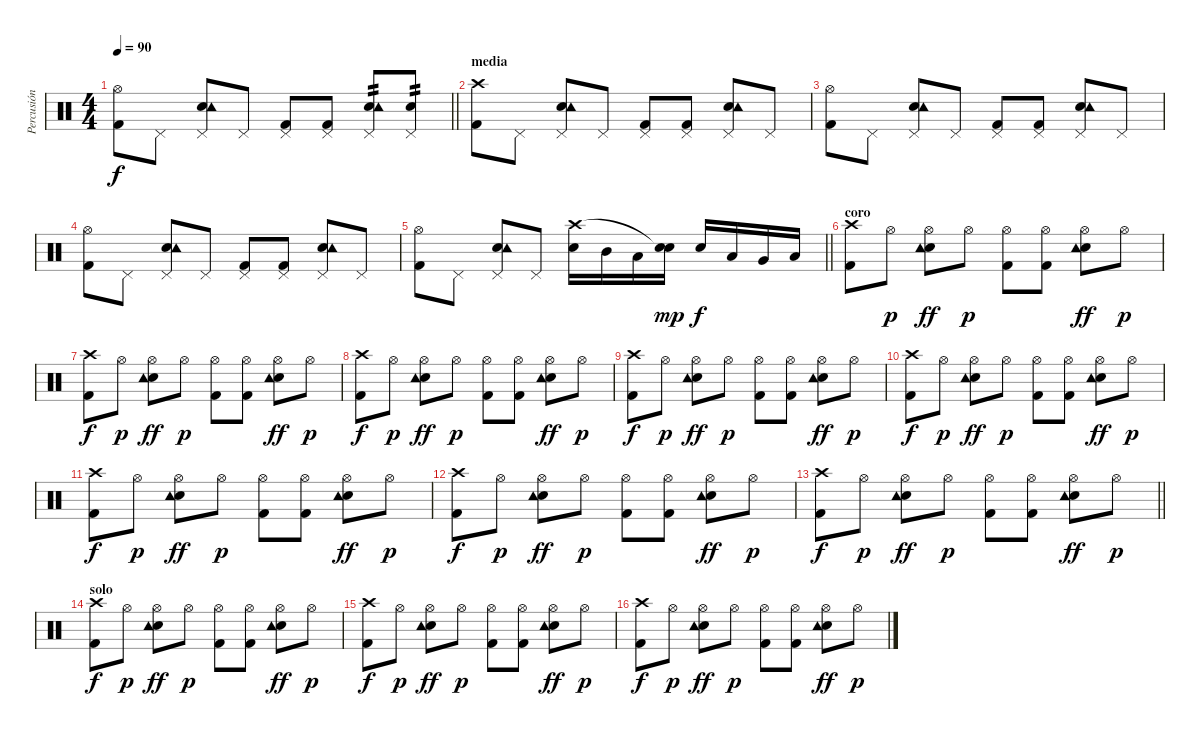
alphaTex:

\track ("Percusión" "Percusión") {instrument percussion}
\staff {score}
\articulation defaults
\ts (4 4)
\tempo 90
\clef neutral
\barLineRight lightlight
\ks c
("Hi-Hat (open)" "Kick (hit) 2").8{dy f} "Pedal Hi-Hat (hit)".8 ("Pedal Hi-Hat (hit)" "Snare (hit) 2" "Tambourine (hit)").8 "Pedal Hi-Hat (hit)".8 ("Pedal Hi-Hat (hit)" "Kick (hit) 2").8 ("Pedal Hi-Hat (hit)" "Kick (hit) 2").8 ("Pedal Hi-Hat (hit)" "Snare (hit) 2" "Tambourine (hit)").8{tp 2} ("Pedal Hi-Hat (hit)" "Snare (hit) 2").8{tp 2} |
\section ("" "media")
("Crash high (hit)" "Kick (hit) 2").8 "Pedal Hi-Hat (hit)".8 ("Pedal Hi-Hat (hit)" "Snare (hit) 2" "Tambourine (hit)").8 "Pedal Hi-Hat (hit)".8 ("Pedal Hi-Hat (hit)" "Kick (hit) 2").8 ("Pedal Hi-Hat (hit)" "Kick (hit) 2").8 ("Pedal Hi-Hat (hit)" "Snare (hit) 2" "Tambourine (hit)").8 "Pedal Hi-Hat (hit)".8 |
("Hi-Hat (open)" "Kick (hit) 2").8 "Pedal Hi-Hat (hit)".8 ("Pedal Hi-Hat (hit)" "Snare (hit) 2" "Tambourine (hit)").8 "Pedal Hi-Hat (hit)".8 ("Pedal Hi-Hat (hit)" "Kick (hit) 2").8 ("Pedal Hi-Hat (hit)" "Kick (hit) 2").8 ("Pedal Hi-Hat (hit)" "Snare (hit) 2" "Tambourine (hit)").8 "Pedal Hi-Hat (hit)".8 |
("Hi-Hat (open)" "Kick (hit) 2").8 "Pedal Hi-Hat (hit)".8 ("Pedal Hi-Hat (hit)" "Snare (hit) 2" "Tambourine (hit)").8 "Pedal Hi-Hat (hit)".8 ("Pedal Hi-Hat (hit)" "Kick (hit) 2").8 ("Pedal Hi-Hat (hit)" "Kick (hit) 2").8 ("Pedal Hi-Hat (hit)" "Snare (hit) 2" "Tambourine (hit)").8 "Pedal Hi-Hat (hit)".8 |
\barLineRight lightlight
("Hi-Hat (open)" "Kick (hit) 2").8 "Pedal Hi-Hat (hit)".8 ("Pedal Hi-Hat (hit)" "Snare (hit) 2" "Tambourine (hit)").8 "Pedal Hi-Hat (hit)".8 ("Snare (hit) 2" "Crash high (hit)").16 "Mid Tom (hit)".16 "Low Tom (hit)".16 ("Snare (hit) 2" "Snare (hit)"{t}).16{dy mp} "Snare (hit) 2".16{dy f} "Low Tom (hit)".16 "Very Low Tom (hit)".16 "Low Floor Tom (hit)".16 |
\section ("" "coro")
("Crash high (hit)" "Kick (hit) 2").8 "Hi-Hat (open)".8{dy p} ("Hi-Hat (open)" "Snare (hit) 2" "Tambourine (hit)").8{dy ff} "Hi-Hat (open)".8{dy p} ("Hi-Hat (open)" "Kick (hit) 2").8 ("Hi-Hat (open)" "Kick (hit) 2").8 ("Hi-Hat (open)" "Snare (hit) 2" "Tambourine (hit)").8{dy ff} "Hi-Hat (open)".8{dy p} |
("Crash high (hit)" "Kick (hit) 2").8{dy f} "Hi-Hat (open)".8{dy p} ("Hi-Hat (open)" "Snare (hit) 2" "Tambourine (hit)").8{dy ff} "Hi-Hat (open)".8{dy p} ("Hi-Hat (open)" "Kick (hit) 2").8 ("Hi-Hat (open)" "Kick (hit) 2").8 ("Hi-Hat (open)" "Snare (hit) 2" "Tambourine (hit)").8{dy ff} "Hi-Hat (open)".8{dy p} |
("Crash high (hit)" "Kick (hit) 2").8{dy f} "Hi-Hat (open)".8{dy p} ("Hi-Hat (open)" "Snare (hit) 2" "Tambourine (hit)").8{dy ff} "Hi-Hat (open)".8{dy p} ("Hi-Hat (open)" "Kick (hit) 2").8 ("Hi-Hat (open)" "Kick (hit) 2").8 ("Hi-Hat (open)" "Snare (hit) 2" "Tambourine (hit)").8{dy ff} "Hi-Hat (open)".8{dy p} |
("Crash high (hit)" "Kick (hit) 2").8{dy f} "Hi-Hat (open)".8{dy p} ("Hi-Hat (open)" "Snare (hit) 2" "Tambourine (hit)").8{dy ff} "Hi-Hat (open)".8{dy p} ("Hi-Hat (open)" "Kick (hit) 2").8 ("Hi-Hat (open)" "Kick (hit) 2").8 ("Hi-Hat (open)" "Snare (hit) 2" "Tambourine (hit)").8{dy ff} "Hi-Hat (open)".8{dy p} |
("Crash high (hit)" "Kick (hit) 2").8{dy f} "Hi-Hat (open)".8{dy p} ("Hi-Hat (open)" "Snare (hit) 2" "Tambourine (hit)").8{dy ff} "Hi-Hat (open)".8{dy p} ("Hi-Hat (open)" "Kick (hit) 2").8 ("Hi-Hat (open)" "Kick (hit) 2").8 ("Hi-Hat (open)" "Snare (hit) 2" "Tambourine (hit)").8{dy ff} "Hi-Hat (open)".8{dy p} |
("Crash high (hit)" "Kick (hit) 2").8{dy f} "Hi-Hat (open)".8{dy p} ("Hi-Hat (open)" "Snare (hit) 2" "Tambourine (hit)").8{dy ff} "Hi-Hat (open)".8{dy p} ("Hi-Hat (open)" "Kick (hit) 2").8 ("Hi-Hat (open)" "Kick (hit) 2").8 ("Hi-Hat (open)" "Snare (hit) 2" "Tambourine (hit)").8{dy ff} "Hi-Hat (open)".8{dy p} |
("Crash high (hit)" "Kick (hit) 2").8{dy f} "Hi-Hat (open)".8{dy p} ("Hi-Hat (open)" "Snare (hit) 2" "Tambourine (hit)").8{dy ff} "Hi-Hat (open)".8{dy p} ("Hi-Hat (open)" "Kick (hit) 2").8 ("Hi-Hat (open)" "Kick (hit) 2").8 ("Hi-Hat (open)" "Snare (hit) 2" "Tambourine (hit)").8{dy ff} "Hi-Hat (open)".8{dy p} |
\barLineRight lightlight
("Crash high (hit)" "Kick (hit) 2").8{dy f} "Hi-Hat (open)".8{dy p} ("Hi-Hat (open)" "Snare (hit) 2" "Tambourine (hit)").8{dy ff} "Hi-Hat (open)".8{dy p} ("Hi-Hat (open)" "Kick (hit) 2").8 ("Hi-Hat (open)" "Kick (hit) 2").8 ("Hi-Hat (open)" "Snare (hit) 2" "Tambourine (hit)").8{dy ff} "Hi-Hat (open)".8{dy p} |
\section ("" "solo")
("Crash high (hit)" "Kick (hit) 2").8{dy f} "Hi-Hat (open)".8{dy p} ("Hi-Hat (open)" "Snare (hit) 2" "Tambourine (hit)").8{dy ff} "Hi-Hat (open)".8{dy p} ("Hi-Hat (open)" "Kick (hit) 2").8 ("Hi-Hat (open)" "Kick (hit) 2").8 ("Hi-Hat (open)" "Snare (hit) 2" "Tambourine (hit)").8{dy ff} "Hi-Hat (open)".8{dy p} |
("Crash high (hit)" "Kick (hit) 2").8{dy f} "Hi-Hat (open)".8{dy p} ("Hi-Hat (open)" "Snare (hit) 2" "Tambourine (hit)").8{dy ff} "Hi-Hat (open)".8{dy p} ("Hi-Hat (open)" "Kick (hit) 2").8 ("Hi-Hat (open)" "Kick (hit) 2").8 ("Hi-Hat (open)" "Snare (hit) 2" "Tambourine (hit)").8{dy ff} "Hi-Hat (open)".8{dy p} |
("Crash high (hit)" "Kick (hit) 2").8{dy f} "Hi-Hat (open)".8{dy p} ("Hi-Hat (open)" "Snare (hit) 2" "Tambourine (hit)").8{dy ff} "Hi-Hat (open)".8{dy p} ("Hi-Hat (open)" "Kick (hit) 2").8 ("Hi-Hat (open)" "Kick (hit) 2").8 ("Hi-Hat (open)" "Snare (hit) 2" "Tambourine (hit)").8{dy ff} "Hi-Hat (open)".8{dy p}
